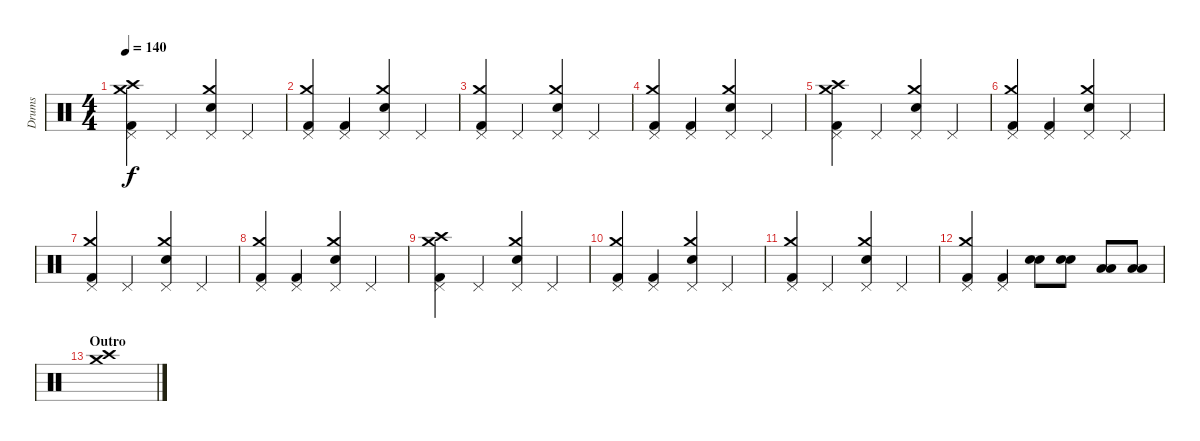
\track ("Drums" "Drums") {instrument percussion}
\staff {score}
\articulation defaults
\ts (4 4)
\tempo 140
\clef neutral
\ks c
("Crash high (hit)" "Pedal Hi-Hat (hit)" "Crash medium (hit)" "Kick (hit) 2").4{dy f} "Pedal Hi-Hat (hit)".4 ("Crash medium (hit)" "Pedal Hi-Hat (hit)" "Electric Snare (hit)").4 "Pedal Hi-Hat (hit)".4 |
("Crash medium (hit)" "Pedal Hi-Hat (hit)" "Kick (hit) 2").4 ("Pedal Hi-Hat (hit)" "Kick (hit) 2").4 ("Crash medium (hit)" "Pedal Hi-Hat (hit)" "Electric Snare (hit)").4 "Pedal Hi-Hat (hit)".4 |
("Crash medium (hit)" "Pedal Hi-Hat (hit)" "Kick (hit) 2").4 "Pedal Hi-Hat (hit)".4 ("Crash medium (hit)" "Pedal Hi-Hat (hit)" "Electric Snare (hit)").4 "Pedal Hi-Hat (hit)".4 |
("Crash medium (hit)" "Pedal Hi-Hat (hit)" "Kick (hit) 2").4 ("Pedal Hi-Hat (hit)" "Kick (hit) 2").4 ("Crash medium (hit)" "Pedal Hi-Hat (hit)" "Electric Snare (hit)").4 "Pedal Hi-Hat (hit)".4 |
("Crash high (hit)" "Pedal Hi-Hat (hit)" "Crash medium (hit)" "Kick (hit) 2").4 "Pedal Hi-Hat (hit)".4 ("Crash medium (hit)" "Pedal Hi-Hat (hit)" "Electric Snare (hit)").4 "Pedal Hi-Hat (hit)".4 |
("Crash medium (hit)" "Pedal Hi-Hat (hit)" "Kick (hit) 2").4 ("Pedal Hi-Hat (hit)" "Kick (hit) 2").4 ("Crash medium (hit)" "Pedal Hi-Hat (hit)" "Electric Snare (hit)").4 "Pedal Hi-Hat (hit)".4 |
("Crash medium (hit)" "Pedal Hi-Hat (hit)" "Kick (hit) 2").4 "Pedal Hi-Hat (hit)".4 ("Crash medium (hit)" "Pedal Hi-Hat (hit)" "Electric Snare (hit)").4 "Pedal Hi-Hat (hit)".4 |
("Crash medium (hit)" "Pedal Hi-Hat (hit)" "Kick (hit) 2").4 ("Pedal Hi-Hat (hit)" "Kick (hit) 2").4 ("Crash medium (hit)" "Pedal Hi-Hat (hit)" "Electric Snare (hit)").4 "Pedal Hi-Hat (hit)".4 |
("Crash high (hit)" "Pedal Hi-Hat (hit)" "Crash medium (hit)" "Kick (hit) 2").4 "Pedal Hi-Hat (hit)".4 ("Crash medium (hit)" "Pedal Hi-Hat (hit)" "Electric Snare (hit)").4 "Pedal Hi-Hat (hit)".4 |
("Crash medium (hit)" "Pedal Hi-Hat (hit)" "Kick (hit) 2").4 ("Pedal Hi-Hat (hit)" "Kick (hit) 2").4 ("Crash medium (hit)" "Pedal Hi-Hat (hit)" "Electric Snare (hit)").4 "Pedal Hi-Hat (hit)".4 |
("Crash medium (hit)" "Pedal Hi-Hat (hit)" "Kick (hit) 2").4 "Pedal Hi-Hat (hit)".4 ("Crash medium (hit)" "Pedal Hi-Hat (hit)" "Electric Snare (hit)").4 "Pedal Hi-Hat (hit)".4 |
("Crash medium (hit)" "Pedal Hi-Hat (hit)" "Kick (hit) 2").4 ("Pedal Hi-Hat (hit)" "Kick (hit) 2").4 ("Snare (hit) 2" "Snare (hit) 2").8 ("Snare (hit) 2" "Snare (hit) 2").8 ("Low Tom (hit)" "Low Tom (hit)").8 ("Low Tom (hit)" "Low Tom (hit)").8 |
\section ("" "Outro")
("Crash high (hit)" "Crash medium (hit)").1
